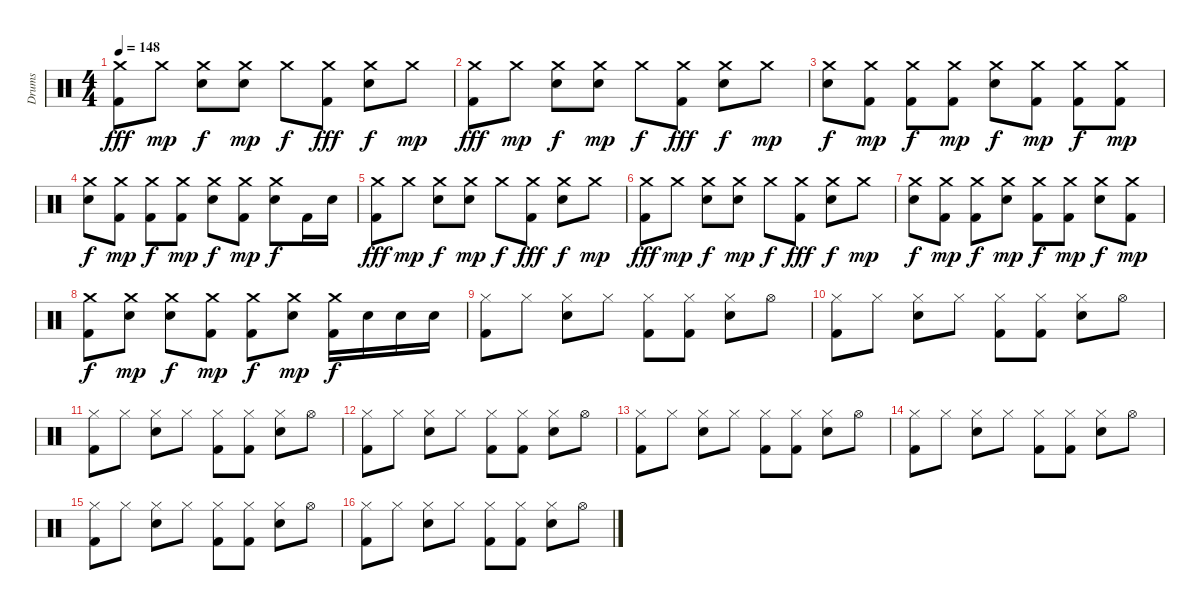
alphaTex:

\track ("Drums" "Drums") {instrument percussion}
\staff {score}
\articulation defaults
\ts (4 4)
\tempo 148
\clef neutral
\ks c
("Crash medium (hit)" "Kick (hit) 2").8{dy fff} "Crash medium (hit)".8{dy mp} ("Crash medium (hit)" "Snare (hit) 2").8{dy f} ("Crash medium (hit)" "Snare (hit) 2").8{dy mp} "Crash medium (hit)".8{dy f} ("Crash medium (hit)" "Kick (hit) 2").8{dy fff} ("Crash medium (hit)" "Snare (hit) 2").8{dy f} "Crash medium (hit)".8{dy mp} |
("Crash medium (hit)" "Kick (hit) 2").8{dy fff} "Crash medium (hit)".8{dy mp} ("Crash medium (hit)" "Snare (hit) 2").8{dy f} ("Crash medium (hit)" "Snare (hit) 2").8{dy mp} "Crash medium (hit)".8{dy f} ("Crash medium (hit)" "Kick (hit) 2").8{dy fff} ("Crash medium (hit)" "Snare (hit) 2").8{dy f} "Crash medium (hit)".8{dy mp} |
("Crash medium (hit)" "Snare (hit) 2").8{dy f} ("Crash medium (hit)" "Kick (hit) 2").8{dy mp} ("Crash medium (hit)" "Kick (hit) 2").8{dy f} ("Crash medium (hit)" "Kick (hit) 2").8{dy mp} ("Crash medium (hit)" "Snare (hit) 2").8{dy f} ("Crash medium (hit)" "Kick (hit) 2").8{dy mp} ("Crash medium (hit)" "Kick (hit) 2").8{dy f} ("Crash medium (hit)" "Kick (hit) 2").8{dy mp} |
("Crash medium (hit)" "Snare (hit) 2").8{dy f} ("Crash medium (hit)" "Kick (hit) 2").8{dy mp} ("Crash medium (hit)" "Kick (hit) 2").8{dy f} ("Crash medium (hit)" "Kick (hit) 2").8{dy mp} ("Crash medium (hit)" "Snare (hit) 2").8{dy f} ("Crash medium (hit)" "Kick (hit) 2").8{dy mp} ("Crash medium (hit)" "Snare (hit) 2").8{dy f} "Kick (hit) 2".16 "Snare (hit) 2".16 |
("Crash medium (hit)" "Kick (hit) 2").8{dy fff} "Crash medium (hit)".8{dy mp} ("Crash medium (hit)" "Snare (hit) 2").8{dy f} ("Crash medium (hit)" "Snare (hit) 2").8{dy mp} "Crash medium (hit)".8{dy f} ("Crash medium (hit)" "Kick (hit) 2").8{dy fff} ("Crash medium (hit)" "Snare (hit) 2").8{dy f} "Crash medium (hit)".8{dy mp} |
("Crash medium (hit)" "Kick (hit) 2").8{dy fff} "Crash medium (hit)".8{dy mp} ("Crash medium (hit)" "Snare (hit) 2").8{dy f} ("Crash medium (hit)" "Snare (hit) 2").8{dy mp} "Crash medium (hit)".8{dy f} ("Crash medium (hit)" "Kick (hit) 2").8{dy fff} ("Crash medium (hit)" "Snare (hit) 2").8{dy f} "Crash medium (hit)".8{dy mp} |
("Crash medium (hit)" "Snare (hit) 2").8{dy f} ("Crash medium (hit)" "Kick (hit) 2").8{dy mp} ("Crash medium (hit)" "Kick (hit) 2").8{dy f} ("Crash medium (hit)" "Snare (hit) 2").8{dy mp} ("Crash medium (hit)" "Kick (hit) 2").8{dy f} ("Crash medium (hit)" "Kick (hit) 2").8{dy mp} ("Crash medium (hit)" "Snare (hit) 2").8{dy f} ("Crash medium (hit)" "Kick (hit) 2").8{dy mp} |
("Crash medium (hit)" "Kick (hit) 2").8{dy f} ("Crash medium (hit)" "Snare (hit) 2").8{dy mp} ("Crash medium (hit)" "Snare (hit) 2").8{dy f} ("Crash medium (hit)" "Kick (hit) 2").8{dy mp} ("Crash medium (hit)" "Kick (hit) 2").8{dy f} ("Crash medium (hit)" "Snare (hit) 2").8{dy mp} ("Crash medium (hit)" "Kick (hit) 2").16{dy f} "Snare (hit) 2".16 "Snare (hit) 2".16 "Snare (hit) 2".16 |
("Hi-Hat (closed)" "Kick (hit) 2").8 "Hi-Hat (closed)".8 ("Hi-Hat (closed)" "Snare (hit) 2").8 "Hi-Hat (closed)".8 ("Hi-Hat (closed)" "Kick (hit) 2").8 ("Hi-Hat (closed)" "Kick (hit) 2").8 ("Hi-Hat (closed)" "Snare (hit) 2").8 "Hi-Hat (open)".8 |
("Hi-Hat (closed)" "Kick (hit) 2").8 "Hi-Hat (closed)".8 ("Hi-Hat (closed)" "Snare (hit) 2").8 "Hi-Hat (closed)".8 ("Hi-Hat (closed)" "Kick (hit) 2").8 ("Hi-Hat (closed)" "Kick (hit) 2").8 ("Hi-Hat (closed)" "Snare (hit) 2").8 "Hi-Hat (open)".8 |
("Hi-Hat (closed)" "Kick (hit) 2").8 "Hi-Hat (closed)".8 ("Hi-Hat (closed)" "Snare (hit) 2").8 "Hi-Hat (closed)".8 ("Hi-Hat (closed)" "Kick (hit) 2").8 ("Hi-Hat (closed)" "Kick (hit) 2").8 ("Hi-Hat (closed)" "Snare (hit) 2").8 "Hi-Hat (open)".8 |
("Hi-Hat (closed)" "Kick (hit) 2").8 "Hi-Hat (closed)".8 ("Hi-Hat (closed)" "Snare (hit) 2").8 "Hi-Hat (closed)".8 ("Hi-Hat (closed)" "Kick (hit) 2").8 ("Hi-Hat (closed)" "Kick (hit) 2").8 ("Hi-Hat (closed)" "Snare (hit) 2").8 "Hi-Hat (open)".8 |
("Hi-Hat (closed)" "Kick (hit) 2").8 "Hi-Hat (closed)".8 ("Hi-Hat (closed)" "Snare (hit) 2").8 "Hi-Hat (closed)".8 ("Hi-Hat (closed)" "Kick (hit) 2").8 ("Hi-Hat (closed)" "Kick (hit) 2").8 ("Hi-Hat (closed)" "Snare (hit) 2").8 "Hi-Hat (open)".8 |
("Hi-Hat (closed)" "Kick (hit) 2").8 "Hi-Hat (closed)".8 ("Hi-Hat (closed)" "Snare (hit) 2").8 "Hi-Hat (closed)".8 ("Hi-Hat (closed)" "Kick (hit) 2").8 ("Hi-Hat (closed)" "Kick (hit) 2").8 ("Hi-Hat (closed)" "Snare (hit) 2").8 "Hi-Hat (open)".8 |
("Hi-Hat (closed)" "Kick (hit) 2").8 "Hi-Hat (closed)".8 ("Hi-Hat (closed)" "Snare (hit) 2").8 "Hi-Hat (closed)".8 ("Hi-Hat (closed)" "Kick (hit) 2").8 ("Hi-Hat (closed)" "Kick (hit) 2").8 ("Hi-Hat (closed)" "Snare (hit) 2").8 "Hi-Hat (open)".8 |
("Hi-Hat (closed)" "Kick (hit) 2").8 "Hi-Hat (closed)".8 ("Hi-Hat (closed)" "Snare (hit) 2").8 "Hi-Hat (closed)".8 ("Hi-Hat (closed)" "Kick (hit) 2").8 ("Hi-Hat (closed)" "Kick (hit) 2").8 ("Hi-Hat (closed)" "Snare (hit) 2").8 "Hi-Hat (open)".8
